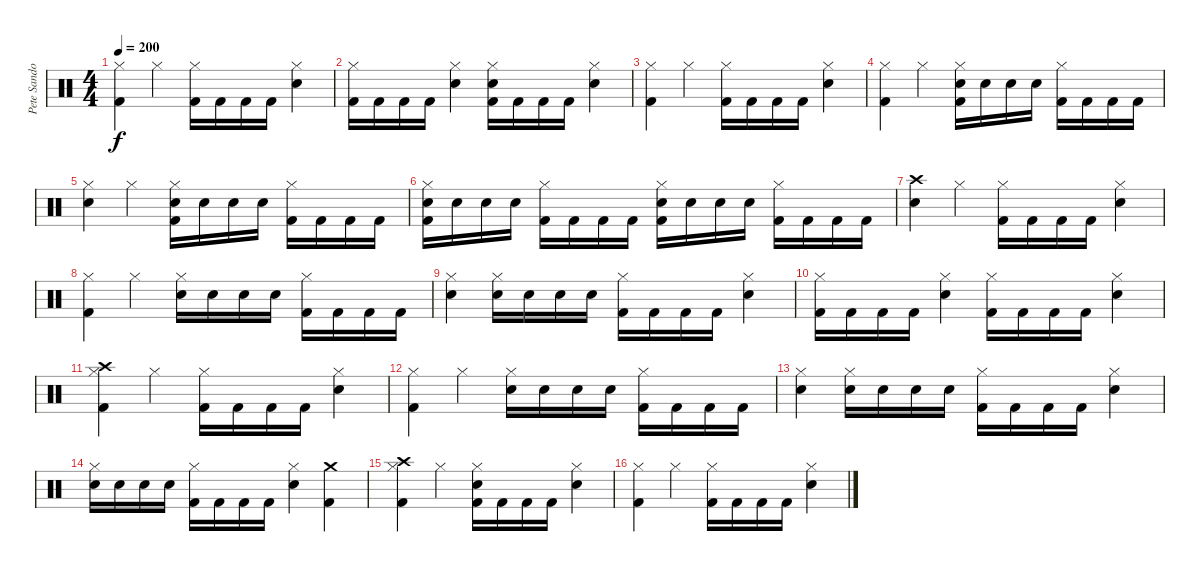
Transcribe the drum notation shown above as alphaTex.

\track ("Pete Sandoval" "Pete Sando") {instrument percussion}
\staff {score}
\articulation defaults
\ts (4 4)
\tempo 200
\clef neutral
\ks c
("Hi-Hat (closed)" "Kick (hit) 2").4{dy f} "Hi-Hat (closed)".4 ("Hi-Hat (closed)" "Kick (hit) 2").16 "Kick (hit) 2".16 "Kick (hit) 2".16 "Kick (hit) 2".16 ("Hi-Hat (closed)" "Electric Snare (hit)").4 |
("Hi-Hat (closed)" "Kick (hit) 2").16 "Kick (hit) 2".16 "Kick (hit) 2".16 "Kick (hit) 2".16 ("Hi-Hat (closed)" "Electric Snare (hit)").4 ("Hi-Hat (closed)" "Electric Snare (hit)" "Kick (hit) 2").16 "Kick (hit) 2".16 "Kick (hit) 2".16 "Kick (hit) 2".16 ("Hi-Hat (closed)" "Electric Snare (hit)").4 |
("Hi-Hat (closed)" "Kick (hit) 2").4 "Hi-Hat (closed)".4 ("Hi-Hat (closed)" "Kick (hit) 2").16 "Kick (hit) 2".16 "Kick (hit) 2".16 "Kick (hit) 2".16 ("Hi-Hat (closed)" "Electric Snare (hit)").4 |
("Hi-Hat (closed)" "Kick (hit) 2").4 "Hi-Hat (closed)".4 ("Hi-Hat (closed)" "Kick (hit) 2" "Electric Snare (hit)").16 "Electric Snare (hit)".16 "Electric Snare (hit)".16 "Electric Snare (hit)".16 ("Hi-Hat (closed)" "Kick (hit) 2").16 "Kick (hit) 2".16 "Kick (hit) 2".16 "Kick (hit) 2".16 |
("Hi-Hat (closed)" "Electric Snare (hit)").4 "Hi-Hat (closed)".4 ("Hi-Hat (closed)" "Kick (hit) 2" "Electric Snare (hit)").16 "Electric Snare (hit)".16 "Electric Snare (hit)".16 "Electric Snare (hit)".16 ("Hi-Hat (closed)" "Kick (hit) 2").16 "Kick (hit) 2".16 "Kick (hit) 2".16 "Kick (hit) 2".16 |
("Hi-Hat (closed)" "Kick (hit) 2" "Electric Snare (hit)").16 "Electric Snare (hit)".16 "Electric Snare (hit)".16 "Electric Snare (hit)".16 ("Hi-Hat (closed)" "Kick (hit) 2").16 "Kick (hit) 2".16 "Kick (hit) 2".16 "Kick (hit) 2".16 ("Hi-Hat (closed)" "Kick (hit) 2" "Electric Snare (hit)").16 "Electric Snare (hit)".16 "Electric Snare (hit)".16 "Electric Snare (hit)".16 ("Hi-Hat (closed)" "Kick (hit) 2").16 "Kick (hit) 2".16 "Kick (hit) 2".16 "Kick (hit) 2".16 |
("Crash high (hit)" "Electric Snare (hit)").4 "Hi-Hat (closed)".4 ("Hi-Hat (closed)" "Kick (hit) 2").16 "Kick (hit) 2".16 "Kick (hit) 2".16 "Kick (hit) 2".16 ("Hi-Hat (closed)" "Electric Snare (hit)").4 |
("Hi-Hat (closed)" "Kick (hit) 2").4 "Hi-Hat (closed)".4 ("Hi-Hat (closed)" "Electric Snare (hit)").16 "Electric Snare (hit)".16 "Electric Snare (hit)".16 "Electric Snare (hit)".16 ("Hi-Hat (closed)" "Kick (hit) 2").16 "Kick (hit) 2".16 "Kick (hit) 2".16 "Kick (hit) 2".16 |
("Hi-Hat (closed)" "Electric Snare (hit)").4 ("Hi-Hat (closed)" "Electric Snare (hit)").16 "Electric Snare (hit)".16 "Electric Snare (hit)".16 "Electric Snare (hit)".16 ("Hi-Hat (closed)" "Kick (hit) 2").16 "Kick (hit) 2".16 "Kick (hit) 2".16 "Kick (hit) 2".16 ("Hi-Hat (closed)" "Electric Snare (hit)").4 |
("Hi-Hat (closed)" "Kick (hit) 2").16 "Kick (hit) 2".16 "Kick (hit) 2".16 "Kick (hit) 2".16 ("Hi-Hat (closed)" "Electric Snare (hit)").4 ("Hi-Hat (closed)" "Kick (hit) 2").16 "Kick (hit) 2".16 "Kick (hit) 2".16 "Kick (hit) 2".16 ("Hi-Hat (closed)" "Electric Snare (hit)").4 |
("Crash high (hit)" "Hi-Hat (closed)" "Kick (hit) 2").4 "Hi-Hat (closed)".4 ("Hi-Hat (closed)" "Kick (hit) 2").16 "Kick (hit) 2".16 "Kick (hit) 2".16 "Kick (hit) 2".16 ("Hi-Hat (closed)" "Electric Snare (hit)").4 |
("Hi-Hat (closed)" "Kick (hit) 2").4 "Hi-Hat (closed)".4 ("Hi-Hat (closed)" "Electric Snare (hit)").16 "Electric Snare (hit)".16 "Electric Snare (hit)".16 "Electric Snare (hit)".16 ("Hi-Hat (closed)" "Kick (hit) 2").16 "Kick (hit) 2".16 "Kick (hit) 2".16 "Kick (hit) 2".16 |
("Hi-Hat (closed)" "Electric Snare (hit)").4 ("Hi-Hat (closed)" "Electric Snare (hit)").16 "Electric Snare (hit)".16 "Electric Snare (hit)".16 "Electric Snare (hit)".16 ("Hi-Hat (closed)" "Kick (hit) 2").16 "Kick (hit) 2".16 "Kick (hit) 2".16 "Kick (hit) 2".16 ("Hi-Hat (closed)" "Electric Snare (hit)").4 |
("Hi-Hat (closed)" "Electric Snare (hit)").16 "Electric Snare (hit)".16 "Electric Snare (hit)".16 "Electric Snare (hit)".16 ("Hi-Hat (closed)" "Kick (hit) 2").16 "Kick (hit) 2".16 "Kick (hit) 2".16 "Kick (hit) 2".16 ("Hi-Hat (closed)" "Electric Snare (hit)").4 ("Crash medium (hit)" "Kick (hit) 2").4 |
("Crash high (hit)" "Hi-Hat (closed)" "Kick (hit) 2").4 "Hi-Hat (closed)".4 ("Electric Snare (hit)" "Hi-Hat (closed)" "Kick (hit) 2").16 "Kick (hit) 2".16 "Kick (hit) 2".16 "Kick (hit) 2".16 ("Hi-Hat (closed)" "Electric Snare (hit)").4 |
("Hi-Hat (closed)" "Kick (hit) 2").4 "Hi-Hat (closed)".4 ("Hi-Hat (closed)" "Kick (hit) 2").16 "Kick (hit) 2".16 "Kick (hit) 2".16 "Kick (hit) 2".16 ("Hi-Hat (closed)" "Electric Snare (hit)").4
